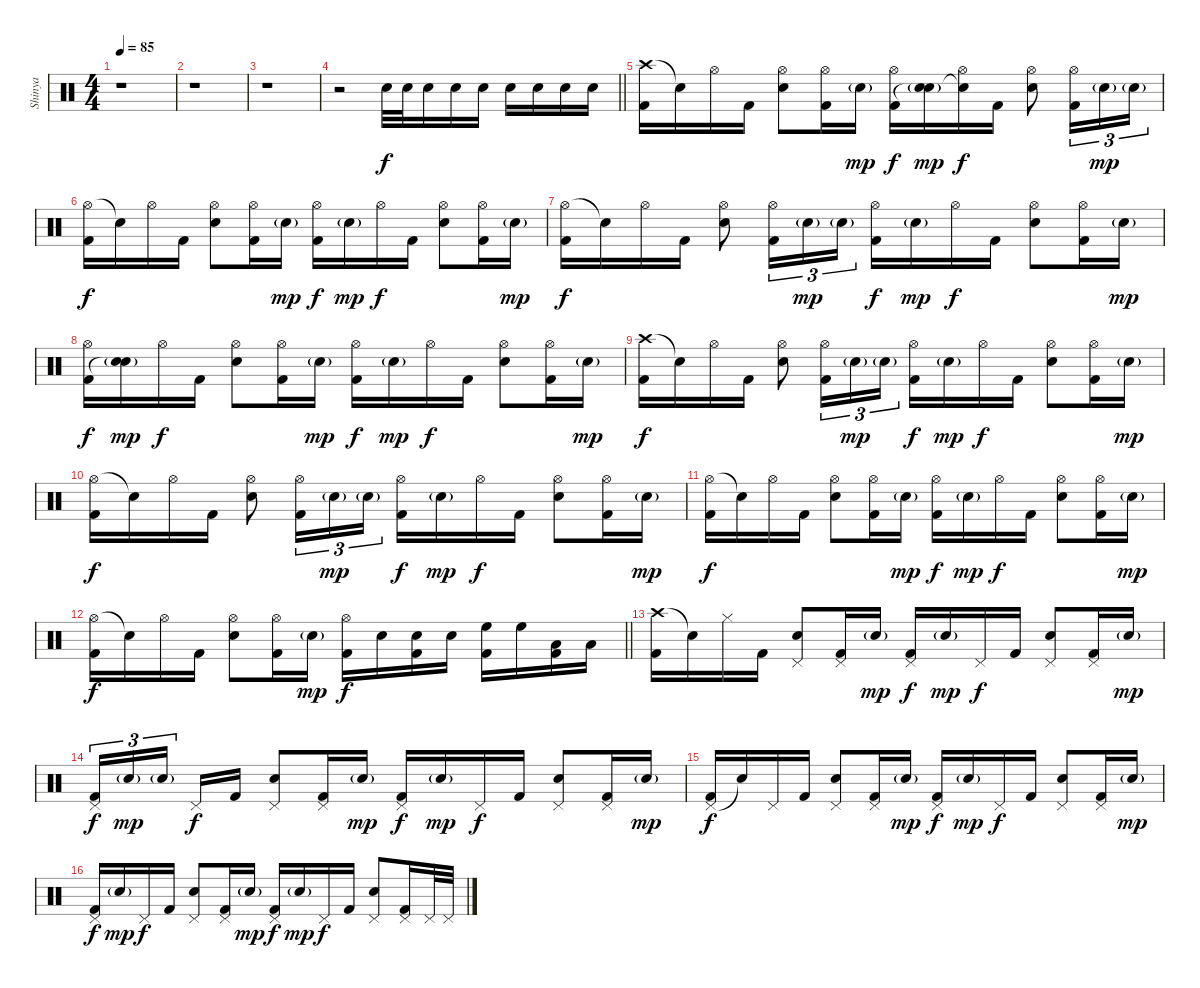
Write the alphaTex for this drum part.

\track ("Shinya" "Shinya") {instrument percussion}
\staff {score}
\articulation defaults
\ts (4 4)
\tempo 85
\clef neutral
\ks c
r.1{dy f} |
r.1 |
r.1 |
\barLineRight lightlight
r.2 "Electric Snare (hit)".32 "Electric Snare (hit)".32 "Electric Snare (hit)".16 "Electric Snare (hit)".16 "Electric Snare (hit)".16 "Electric Snare (hit)".16 "Electric Snare (hit)".16 "Electric Snare (hit)".16 "Electric Snare (hit)".16 |
("Crash high (hit)" "Kick (hit) 2").16 "Snare (hit)"{t}.16 "Hi-Hat (open)".16 "Kick (hit) 2".16 ("Hi-Hat (open)" "Electric Snare (hit)").8 ("Hi-Hat (open)" "Kick (hit) 2").16 "Electric Snare (hit)"{g}.16{dy mp} ("Hi-Hat (open)" "Kick (hit) 2").16{dy f} ("Electric Snare (hit)"{g} "Snare (hit)"{t}).16{dy mp} ("Hi-Hat (open)" "Snare (hit)"{t}).16{dy f} "Kick (hit) 2".16 ("Hi-Hat (open)" "Electric Snare (hit)").8 ("Hi-Hat (open)" "Kick (hit) 2").16{tu (3 2)} "Electric Snare (hit)"{g}.16{tu (3 2) dy mp} "Electric Snare (hit)"{g}.16{tu (3 2)} |
("Hi-Hat (open)" "Kick (hit) 2").16{dy f} "Snare (hit)"{t}.16 "Hi-Hat (open)".16 "Kick (hit) 2".16 ("Hi-Hat (open)" "Electric Snare (hit)").8 ("Hi-Hat (open)" "Kick (hit) 2").16 "Electric Snare (hit)"{g}.16{dy mp} ("Hi-Hat (open)" "Kick (hit) 2").16{dy f} "Electric Snare (hit)"{g}.16{dy mp} "Hi-Hat (open)".16{dy f} "Kick (hit) 2".16 ("Hi-Hat (open)" "Electric Snare (hit)").8 ("Hi-Hat (open)" "Kick (hit) 2").16 "Electric Snare (hit)"{g}.16{dy mp} |
("Hi-Hat (open)" "Kick (hit) 2").16{dy f} "Snare (hit)"{t}.16 "Hi-Hat (open)".16 "Kick (hit) 2".16 ("Hi-Hat (open)" "Electric Snare (hit)").8 ("Hi-Hat (open)" "Kick (hit) 2").16{tu (3 2)} "Electric Snare (hit)"{g}.16{tu (3 2) dy mp} "Electric Snare (hit)"{g}.16{tu (3 2)} ("Hi-Hat (open)" "Kick (hit) 2").16{dy f} "Electric Snare (hit)"{g}.16{dy mp} "Hi-Hat (open)".16{dy f} "Kick (hit) 2".16 ("Hi-Hat (open)" "Electric Snare (hit)").8 ("Hi-Hat (open)" "Kick (hit) 2").16 "Electric Snare (hit)"{g}.16{dy mp} |
("Hi-Hat (open)" "Kick (hit) 2").16{dy f} ("Electric Snare (hit)"{g} "Snare (hit)"{t}).16{dy mp} "Hi-Hat (open)".16{dy f} "Kick (hit) 2".16 ("Hi-Hat (open)" "Electric Snare (hit)").8 ("Hi-Hat (open)" "Kick (hit) 2").16 "Electric Snare (hit)"{g}.16{dy mp} ("Hi-Hat (open)" "Kick (hit) 2").16{dy f} "Electric Snare (hit)"{g}.16{dy mp} "Hi-Hat (open)".16{dy f} "Kick (hit) 2".16 ("Hi-Hat (open)" "Electric Snare (hit)").8 ("Hi-Hat (open)" "Kick (hit) 2").16 "Electric Snare (hit)"{g}.16{dy mp} |
("Crash high (hit)" "Kick (hit) 2").16{dy f} "Snare (hit)"{t}.16 "Hi-Hat (open)".16 "Kick (hit) 2".16 ("Hi-Hat (open)" "Electric Snare (hit)").8 ("Hi-Hat (open)" "Kick (hit) 2").16{tu (3 2)} "Electric Snare (hit)"{g}.16{tu (3 2) dy mp} "Electric Snare (hit)"{g}.16{tu (3 2)} ("Hi-Hat (open)" "Kick (hit) 2").16{dy f} "Electric Snare (hit)"{g}.16{dy mp} "Hi-Hat (open)".16{dy f} "Kick (hit) 2".16 ("Hi-Hat (open)" "Electric Snare (hit)").8 ("Hi-Hat (open)" "Kick (hit) 2").16 "Electric Snare (hit)"{g}.16{dy mp} |
("Hi-Hat (open)" "Kick (hit) 2").16{dy f} "Snare (hit)"{t}.16 "Hi-Hat (open)".16 "Kick (hit) 2".16 ("Hi-Hat (open)" "Electric Snare (hit)").8 ("Hi-Hat (open)" "Kick (hit) 2").16{tu (3 2)} "Electric Snare (hit)"{g}.16{tu (3 2) dy mp} "Electric Snare (hit)"{g}.16{tu (3 2)} ("Hi-Hat (open)" "Kick (hit) 2").16{dy f} "Electric Snare (hit)"{g}.16{dy mp} "Hi-Hat (open)".16{dy f} "Kick (hit) 2".16 ("Hi-Hat (open)" "Electric Snare (hit)").8 ("Hi-Hat (open)" "Kick (hit) 2").16 "Electric Snare (hit)"{g}.16{dy mp} |
("Hi-Hat (open)" "Kick (hit) 2").16{dy f} "Snare (hit)"{t}.16 "Hi-Hat (open)".16 "Kick (hit) 2".16 ("Hi-Hat (open)" "Electric Snare (hit)").8 ("Hi-Hat (open)" "Kick (hit) 2").16 "Electric Snare (hit)"{g}.16{dy mp} ("Hi-Hat (open)" "Kick (hit) 2").16{dy f} "Electric Snare (hit)"{g}.16{dy mp} "Hi-Hat (open)".16{dy f} "Kick (hit) 2".16 ("Hi-Hat (open)" "Electric Snare (hit)").8 ("Hi-Hat (open)" "Kick (hit) 2").16 "Electric Snare (hit)"{g}.16{dy mp} |
\barLineRight lightlight
("Hi-Hat (open)" "Kick (hit) 2").16{dy f} "Snare (hit)"{t}.16 "Hi-Hat (open)".16 "Kick (hit) 2".16 ("Hi-Hat (open)" "Electric Snare (hit)").8 ("Hi-Hat (open)" "Kick (hit) 2").16 "Electric Snare (hit)"{g}.16{dy mp} ("Hi-Hat (open)" "Kick (hit) 2").16{dy f} "Electric Snare (hit)".16 ("Electric Snare (hit)" "Kick (hit) 2").16 "Electric Snare (hit)".16 ("High Floor Tom (hit)" "Kick (hit) 2").16 "High Floor Tom (hit)".16 ("Low Tom (hit)" "Kick (hit) 2").16 "Low Tom (hit)".16 |
("Crash high (hit)" "Kick (hit) 2").16 "Snare (hit)"{t}.16 "Hi-Hat (closed)".16 "Kick (hit) 2".16 ("Pedal Hi-Hat (hit)" "Electric Snare (hit)").8 ("Pedal Hi-Hat (hit)" "Kick (hit) 2").16 "Electric Snare (hit)"{g}.16{dy mp} ("Pedal Hi-Hat (hit)" "Kick (hit) 2").16{dy f} "Electric Snare (hit)"{g}.16{dy mp} "Pedal Hi-Hat (hit)".16{dy f} "Kick (hit) 2".16 ("Pedal Hi-Hat (hit)" "Electric Snare (hit)").8 ("Pedal Hi-Hat (hit)" "Kick (hit) 2").16 "Electric Snare (hit)"{g}.16{dy mp} |
("Pedal Hi-Hat (hit)" "Kick (hit) 2").16{tu (3 2) dy f} "Electric Snare (hit)"{g}.16{tu (3 2) dy mp} "Electric Snare (hit)"{g}.16{tu (3 2)} "Pedal Hi-Hat (hit)".16{dy f} "Kick (hit) 2".16 ("Pedal Hi-Hat (hit)" "Electric Snare (hit)").8 ("Pedal Hi-Hat (hit)" "Kick (hit) 2").16 "Electric Snare (hit)"{g}.16{dy mp} ("Pedal Hi-Hat (hit)" "Kick (hit) 2").16{dy f} "Electric Snare (hit)"{g}.16{dy mp} "Pedal Hi-Hat (hit)".16{dy f} "Kick (hit) 2".16 ("Pedal Hi-Hat (hit)" "Electric Snare (hit)").8 ("Pedal Hi-Hat (hit)" "Kick (hit) 2").16 "Electric Snare (hit)"{g}.16{dy mp} |
("Pedal Hi-Hat (hit)" "Kick (hit) 2").16{dy f} "Snare (hit)"{t}.16 "Pedal Hi-Hat (hit)".16 "Kick (hit) 2".16 ("Pedal Hi-Hat (hit)" "Electric Snare (hit)").8 ("Pedal Hi-Hat (hit)" "Kick (hit) 2").16 "Electric Snare (hit)"{g}.16{dy mp} ("Pedal Hi-Hat (hit)" "Kick (hit) 2").16{dy f} "Electric Snare (hit)"{g}.16{dy mp} "Pedal Hi-Hat (hit)".16{dy f} "Kick (hit) 2".16 ("Pedal Hi-Hat (hit)" "Electric Snare (hit)").8 ("Pedal Hi-Hat (hit)" "Kick (hit) 2").16 "Electric Snare (hit)"{g}.16{dy mp} |
("Pedal Hi-Hat (hit)" "Kick (hit) 2").16{dy f} "Electric Snare (hit)"{g}.16{dy mp} "Pedal Hi-Hat (hit)".16{dy f} "Kick (hit) 2".16 ("Pedal Hi-Hat (hit)" "Electric Snare (hit)").8 ("Pedal Hi-Hat (hit)" "Kick (hit) 2").16 "Electric Snare (hit)"{g}.16{dy mp} ("Pedal Hi-Hat (hit)" "Kick (hit) 2").16{dy f} "Electric Snare (hit)"{g}.16{dy mp} "Pedal Hi-Hat (hit)".16{dy f} "Kick (hit) 2".16 ("Pedal Hi-Hat (hit)" "Electric Snare (hit)").8 ("Pedal Hi-Hat (hit)" "Kick (hit) 2").16 "Pedal Hi-Hat (hit)".32 "Pedal Hi-Hat (hit)".32
